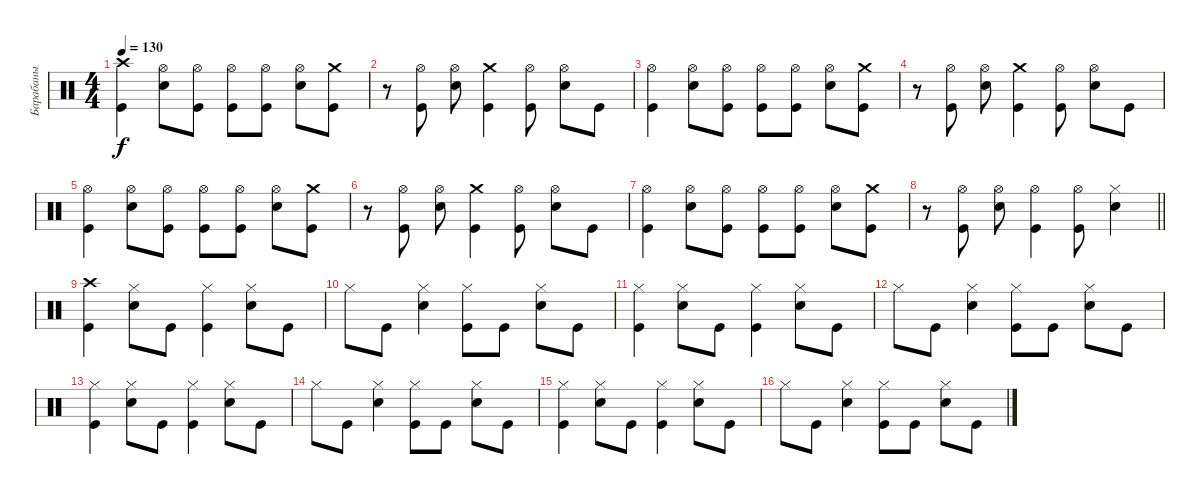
\track ("Барабаны" "Барабаны") {instrument percussion}
\staff {score}
\articulation defaults
\ts (4 4)
\tempo 130
\clef neutral
\ks c
("Crash high (hit)" "Kick (hit)").4{dy f} ("Hi-Hat (open)" "Electric Snare (hit)").8 ("Hi-Hat (open)" "Kick (hit)").8 ("Hi-Hat (open)" "Kick (hit)").8 ("Hi-Hat (open)" "Kick (hit)").8 ("Hi-Hat (open)" "Electric Snare (hit)").8 ("Crash medium (hit)" "Kick (hit)").8 |
r.8 ("Hi-Hat (open)" "Kick (hit)").8 ("Hi-Hat (open)" "Electric Snare (hit)").8 ("Crash medium (hit)" "Kick (hit)").4 ("Hi-Hat (open)" "Kick (hit)").8 ("Hi-Hat (open)" "Electric Snare (hit)").8 "Kick (hit)".8 |
("Hi-Hat (open)" "Kick (hit)").4 ("Hi-Hat (open)" "Electric Snare (hit)").8 ("Hi-Hat (open)" "Kick (hit)").8 ("Hi-Hat (open)" "Kick (hit)").8 ("Hi-Hat (open)" "Kick (hit)").8 ("Hi-Hat (open)" "Electric Snare (hit)").8 ("Crash medium (hit)" "Kick (hit)").8 |
r.8 ("Hi-Hat (open)" "Kick (hit)").8 ("Hi-Hat (open)" "Electric Snare (hit)").8 ("Crash medium (hit)" "Kick (hit)").4 ("Hi-Hat (open)" "Kick (hit)").8 ("Hi-Hat (open)" "Electric Snare (hit)").8 "Kick (hit)".8 |
("Hi-Hat (open)" "Kick (hit)").4 ("Hi-Hat (open)" "Electric Snare (hit)").8 ("Hi-Hat (open)" "Kick (hit)").8 ("Hi-Hat (open)" "Kick (hit)").8 ("Hi-Hat (open)" "Kick (hit)").8 ("Hi-Hat (open)" "Electric Snare (hit)").8 ("Crash medium (hit)" "Kick (hit)").8 |
r.8 ("Hi-Hat (open)" "Kick (hit)").8 ("Hi-Hat (open)" "Electric Snare (hit)").8 ("Crash medium (hit)" "Kick (hit)").4 ("Hi-Hat (open)" "Kick (hit)").8 ("Hi-Hat (open)" "Electric Snare (hit)").8 "Kick (hit)".8 |
("Hi-Hat (open)" "Kick (hit)").4 ("Hi-Hat (open)" "Electric Snare (hit)").8 ("Hi-Hat (open)" "Kick (hit)").8 ("Hi-Hat (open)" "Kick (hit)").8 ("Hi-Hat (open)" "Kick (hit)").8 ("Hi-Hat (open)" "Electric Snare (hit)").8 ("Crash medium (hit)" "Kick (hit)").8 |
\barLineRight lightlight
r.8 ("Hi-Hat (open)" "Kick (hit)").8 ("Hi-Hat (open)" "Electric Snare (hit)").8 ("Hi-Hat (open)" "Kick (hit)").4 ("Hi-Hat (open)" "Kick (hit)").8 ("Hi-Hat (closed)" "Electric Snare (hit)").4 |
("Crash high (hit)" "Kick (hit)").4 ("Hi-Hat (closed)" "Electric Snare (hit)").8 "Kick (hit)".8 ("Hi-Hat (closed)" "Kick (hit)").4 ("Hi-Hat (closed)" "Electric Snare (hit)").8 "Kick (hit)".8 |
"Hi-Hat (closed)".8 "Kick (hit)".8 ("Hi-Hat (closed)" "Electric Snare (hit)").4 ("Hi-Hat (closed)" "Kick (hit)").8 "Kick (hit)".8 ("Hi-Hat (closed)" "Electric Snare (hit)").8 "Kick (hit)".8 |
("Hi-Hat (closed)" "Kick (hit)").4 ("Hi-Hat (closed)" "Electric Snare (hit)").8 "Kick (hit)".8 ("Hi-Hat (closed)" "Kick (hit)").4 ("Hi-Hat (closed)" "Electric Snare (hit)").8 "Kick (hit)".8 |
"Hi-Hat (closed)".8 "Kick (hit)".8 ("Hi-Hat (closed)" "Electric Snare (hit)").4 ("Hi-Hat (closed)" "Kick (hit)").8 "Kick (hit)".8 ("Hi-Hat (closed)" "Electric Snare (hit)").8 "Kick (hit)".8 |
("Hi-Hat (closed)" "Kick (hit)").4 ("Hi-Hat (closed)" "Electric Snare (hit)").8 "Kick (hit)".8 ("Hi-Hat (closed)" "Kick (hit)").4 ("Hi-Hat (closed)" "Electric Snare (hit)").8 "Kick (hit)".8 |
"Hi-Hat (closed)".8 "Kick (hit)".8 ("Hi-Hat (closed)" "Electric Snare (hit)").4 ("Hi-Hat (closed)" "Kick (hit)").8 "Kick (hit)".8 ("Hi-Hat (closed)" "Electric Snare (hit)").8 "Kick (hit)".8 |
("Hi-Hat (closed)" "Kick (hit)").4 ("Hi-Hat (closed)" "Electric Snare (hit)").8 "Kick (hit)".8 ("Hi-Hat (closed)" "Kick (hit)").4 ("Hi-Hat (closed)" "Electric Snare (hit)").8 "Kick (hit)".8 |
"Hi-Hat (closed)".8 "Kick (hit)".8 ("Hi-Hat (closed)" "Electric Snare (hit)").4 ("Hi-Hat (closed)" "Kick (hit)").8 "Kick (hit)".8 ("Hi-Hat (closed)" "Electric Snare (hit)").8 "Kick (hit)".8
